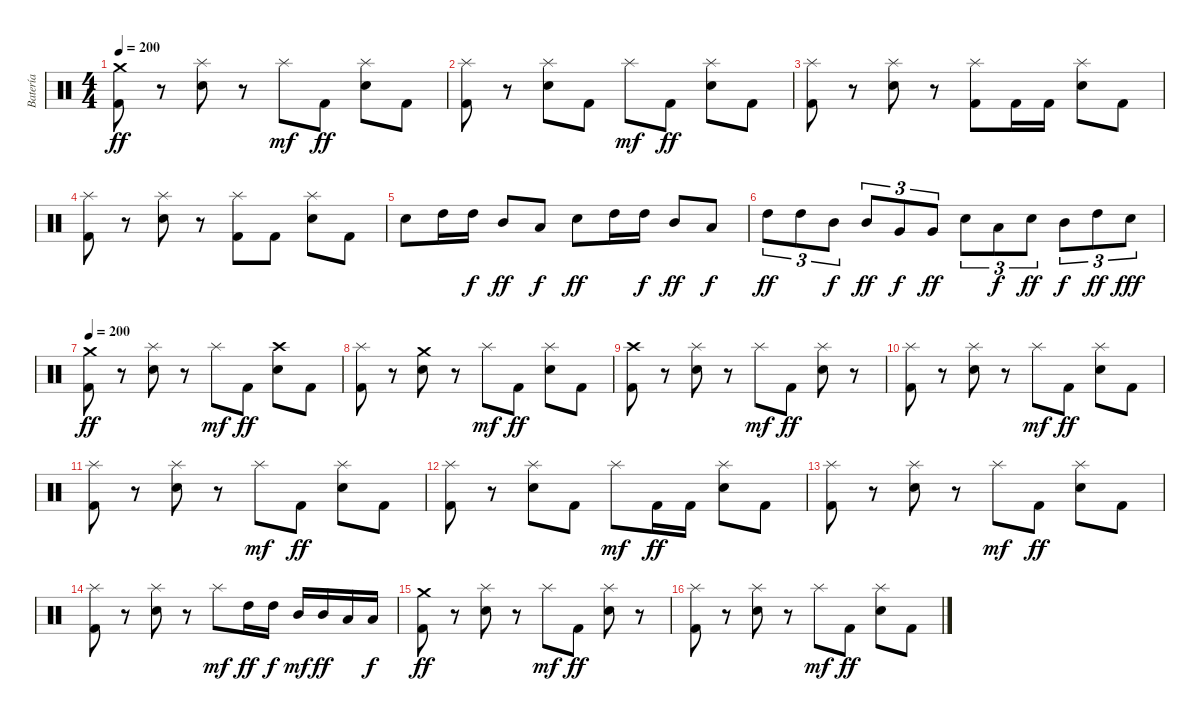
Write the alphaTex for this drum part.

\track ("Batería" "Batería") {instrument percussion}
\staff {score}
\articulation defaults
\ts (4 4)
\tempo 200
\clef neutral
\ks c
("Crash medium (hit)" "Kick (hit) 2").8{dy ff} r.8 ("Splash (hit)" "Electric Snare (hit)").8 r.8 "Splash (hit)".8{dy mf} "Kick (hit) 2".8{dy ff} ("Splash (hit)" "Electric Snare (hit)").8 "Kick (hit) 2".8 |
("Splash (hit)" "Kick (hit) 2").8 r.8 ("Splash (hit)" "Electric Snare (hit)").8 "Kick (hit) 2".8 "Splash (hit)".8{dy mf} "Kick (hit) 2".8{dy ff} ("Splash (hit)" "Electric Snare (hit)").8 "Kick (hit) 2".8 |
("Splash (hit)" "Kick (hit) 2").8 r.8 ("Splash (hit)" "Electric Snare (hit)").8 r.8 ("Splash (hit)" "Kick (hit) 2").8 "Kick (hit) 2".16 "Kick (hit) 2".16 ("Splash (hit)" "Electric Snare (hit)").8 "Kick (hit) 2".8 |
("Splash (hit)" "Kick (hit) 2").8 r.8 ("Splash (hit)" "Electric Snare (hit)").8 r.8 ("Splash (hit)" "Kick (hit) 2").8 "Kick (hit) 2".8 ("Splash (hit)" "Electric Snare (hit)").8 "Kick (hit) 2".8 |
"Electric Snare (hit)".8 "High Tom (hit)".16 "High Tom (hit)".16{dy f} "Mid Tom (hit)".8{dy ff} "Low Tom (hit)".8{dy f} "Electric Snare (hit)".8{dy ff} "High Tom (hit)".16 "High Tom (hit)".16{dy f} "Mid Tom (hit)".8{dy ff} "Low Tom (hit)".8{dy f} |
"High Tom (hit)".8{tu (3 2) dy ff} "High Tom (hit)".8{tu (3 2)} "Mid Tom (hit)".8{tu (3 2) dy f} "Mid Tom (hit)".8{tu (3 2) dy ff} "Very Low Tom (hit)".8{tu (3 2) dy f} "Very Low Tom (hit)".8{tu (3 2) dy ff} "Electric Snare (hit)".8{tu (3 2)} "Low Tom (hit)".8{tu (3 2) dy f} "Electric Snare (hit)".8{tu (3 2) dy ff} "Mid Tom (hit)".8{tu (3 2) dy f} "High Tom (hit)".8{tu (3 2) dy ff} "Electric Snare (hit)".8{tu (3 2) dy fff} |
\tempo 200
("Crash medium (hit)" "Kick (hit) 2").8{dy ff} r.8 ("Splash (hit)" "Electric Snare (hit)").8 r.8 "Splash (hit)".8{dy mf} "Kick (hit) 2".8{dy ff} ("Crash high (hit)" "Electric Snare (hit)").8 "Kick (hit) 2".8 |
("Splash (hit)" "Kick (hit) 2").8 r.8 ("Crash medium (hit)" "Electric Snare (hit)").8 r.8 "Splash (hit)".8{dy mf} "Kick (hit) 2".8{dy ff} ("Splash (hit)" "Electric Snare (hit)").8 "Kick (hit) 2".8 |
("Crash high (hit)" "Kick (hit) 2").8 r.8 ("Splash (hit)" "Electric Snare (hit)").8 r.8 "Splash (hit)".8{dy mf} "Kick (hit) 2".8{dy ff} ("Splash (hit)" "Electric Snare (hit)").8 r.8 |
("Splash (hit)" "Kick (hit) 2").8 r.8 ("Splash (hit)" "Electric Snare (hit)").8 r.8 "Splash (hit)".8{dy mf} "Kick (hit) 2".8{dy ff} ("Splash (hit)" "Electric Snare (hit)").8 "Kick (hit) 2".8 |
("Splash (hit)" "Kick (hit) 2").8 r.8 ("Splash (hit)" "Electric Snare (hit)").8 r.8 "Splash (hit)".8{dy mf} "Kick (hit) 2".8{dy ff} ("Splash (hit)" "Electric Snare (hit)").8 "Kick (hit) 2".8 |
("Splash (hit)" "Kick (hit) 2").8 r.8 ("Splash (hit)" "Electric Snare (hit)").8 "Kick (hit) 2".8 "Splash (hit)".8{dy mf} "Kick (hit) 2".16{dy ff} "Kick (hit) 2".16 ("Splash (hit)" "Electric Snare (hit)").8 "Kick (hit) 2".8 |
("Splash (hit)" "Kick (hit) 2").8 r.8 ("Splash (hit)" "Electric Snare (hit)").8 r.8 "Splash (hit)".8{dy mf} "Kick (hit) 2".8{dy ff} ("Splash (hit)" "Electric Snare (hit)").8 "Kick (hit) 2".8 |
("Splash (hit)" "Kick (hit) 2").8 r.8 ("Splash (hit)" "Electric Snare (hit)").8 r.8 "Splash (hit)".8{dy mf} "High Tom (hit)".16{dy ff} "High Tom (hit)".16{dy f} "Mid Tom (hit)".16{dy mf} "Mid Tom (hit)".16{dy ff} "Low Tom (hit)".16 "Low Tom (hit)".16{dy f} |
("Crash medium (hit)" "Kick (hit) 2").8{dy ff} r.8 ("Splash (hit)" "Electric Snare (hit)").8 r.8 "Splash (hit)".8{dy mf} "Kick (hit) 2".8{dy ff} ("Splash (hit)" "Electric Snare (hit)").8 r.8 |
("Splash (hit)" "Kick (hit) 2").8 r.8 ("Splash (hit)" "Electric Snare (hit)").8 r.8 "Splash (hit)".8{dy mf} "Kick (hit) 2".8{dy ff} ("Splash (hit)" "Electric Snare (hit)").8 "Kick (hit) 2".8
